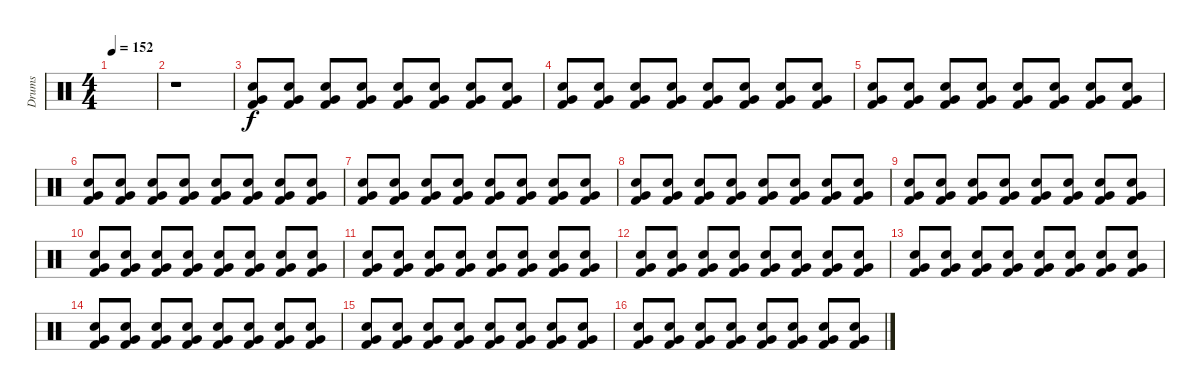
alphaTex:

\track ("Drums" "Drums") {instrument percussion}
\staff {score}
\articulation defaults
\ts (4 4)
\tempo 152
\clef neutral
\ks c
|
r.1{volume 7} |
("Very Low Tom (hit)" "Snare (hit) 2" "Kick (hit) 2").8{volume 10} ("Very Low Tom (hit)" "Snare (hit) 2" "Kick (hit) 2").8 ("Very Low Tom (hit)" "Snare (hit) 2" "Kick (hit) 2").8 ("Very Low Tom (hit)" "Snare (hit) 2" "Kick (hit) 2").8 ("Very Low Tom (hit)" "Snare (hit) 2" "Kick (hit) 2").8 ("Very Low Tom (hit)" "Snare (hit) 2" "Kick (hit) 2").8 ("Very Low Tom (hit)" "Snare (hit) 2" "Kick (hit) 2").8 ("Very Low Tom (hit)" "Snare (hit) 2" "Kick (hit) 2").8 |
("Very Low Tom (hit)" "Snare (hit) 2" "Kick (hit) 2").8 ("Very Low Tom (hit)" "Snare (hit) 2" "Kick (hit) 2").8 ("Very Low Tom (hit)" "Snare (hit) 2" "Kick (hit) 2").8 ("Very Low Tom (hit)" "Snare (hit) 2" "Kick (hit) 2").8 ("Very Low Tom (hit)" "Snare (hit) 2" "Kick (hit) 2").8 ("Very Low Tom (hit)" "Snare (hit) 2" "Kick (hit) 2").8 ("Very Low Tom (hit)" "Snare (hit) 2" "Kick (hit) 2").8 ("Very Low Tom (hit)" "Snare (hit) 2" "Kick (hit) 2").8 |
("Very Low Tom (hit)" "Snare (hit) 2" "Kick (hit) 2").8 ("Very Low Tom (hit)" "Snare (hit) 2" "Kick (hit) 2").8 ("Very Low Tom (hit)" "Snare (hit) 2" "Kick (hit) 2").8 ("Very Low Tom (hit)" "Snare (hit) 2" "Kick (hit) 2").8 ("Very Low Tom (hit)" "Snare (hit) 2" "Kick (hit) 2").8 ("Very Low Tom (hit)" "Snare (hit) 2" "Kick (hit) 2").8 ("Very Low Tom (hit)" "Snare (hit) 2" "Kick (hit) 2").8 ("Very Low Tom (hit)" "Snare (hit) 2" "Kick (hit) 2").8 |
("Very Low Tom (hit)" "Snare (hit) 2" "Kick (hit) 2").8 ("Very Low Tom (hit)" "Snare (hit) 2" "Kick (hit) 2").8 ("Very Low Tom (hit)" "Snare (hit) 2" "Kick (hit) 2").8 ("Very Low Tom (hit)" "Snare (hit) 2" "Kick (hit) 2").8 ("Very Low Tom (hit)" "Snare (hit) 2" "Kick (hit) 2").8 ("Very Low Tom (hit)" "Snare (hit) 2" "Kick (hit) 2").8 ("Very Low Tom (hit)" "Snare (hit) 2" "Kick (hit) 2").8 ("Very Low Tom (hit)" "Snare (hit) 2" "Kick (hit) 2").8 |
("Very Low Tom (hit)" "Snare (hit) 2" "Kick (hit) 2").8{volume 12} ("Very Low Tom (hit)" "Snare (hit) 2" "Kick (hit) 2").8 ("Very Low Tom (hit)" "Snare (hit) 2" "Kick (hit) 2").8 ("Very Low Tom (hit)" "Snare (hit) 2" "Kick (hit) 2").8 ("Very Low Tom (hit)" "Snare (hit) 2" "Kick (hit) 2").8 ("Very Low Tom (hit)" "Snare (hit) 2" "Kick (hit) 2").8 ("Very Low Tom (hit)" "Snare (hit) 2" "Kick (hit) 2").8 ("Very Low Tom (hit)" "Snare (hit) 2" "Kick (hit) 2").8 |
("Very Low Tom (hit)" "Snare (hit) 2" "Kick (hit) 2").8 ("Very Low Tom (hit)" "Snare (hit) 2" "Kick (hit) 2").8 ("Very Low Tom (hit)" "Snare (hit) 2" "Kick (hit) 2").8 ("Very Low Tom (hit)" "Snare (hit) 2" "Kick (hit) 2").8 ("Very Low Tom (hit)" "Snare (hit) 2" "Kick (hit) 2").8 ("Very Low Tom (hit)" "Snare (hit) 2" "Kick (hit) 2").8 ("Very Low Tom (hit)" "Snare (hit) 2" "Kick (hit) 2").8 ("Very Low Tom (hit)" "Snare (hit) 2" "Kick (hit) 2").8 |
("Very Low Tom (hit)" "Snare (hit) 2" "Kick (hit) 2").8 ("Very Low Tom (hit)" "Snare (hit) 2" "Kick (hit) 2").8 ("Very Low Tom (hit)" "Snare (hit) 2" "Kick (hit) 2").8 ("Very Low Tom (hit)" "Snare (hit) 2" "Kick (hit) 2").8 ("Very Low Tom (hit)" "Snare (hit) 2" "Kick (hit) 2").8 ("Very Low Tom (hit)" "Snare (hit) 2" "Kick (hit) 2").8 ("Very Low Tom (hit)" "Snare (hit) 2" "Kick (hit) 2").8 ("Very Low Tom (hit)" "Snare (hit) 2" "Kick (hit) 2").8 |
("Very Low Tom (hit)" "Snare (hit) 2" "Kick (hit) 2").8 ("Very Low Tom (hit)" "Snare (hit) 2" "Kick (hit) 2").8 ("Very Low Tom (hit)" "Snare (hit) 2" "Kick (hit) 2").8 ("Very Low Tom (hit)" "Snare (hit) 2" "Kick (hit) 2").8 ("Very Low Tom (hit)" "Snare (hit) 2" "Kick (hit) 2").8 ("Very Low Tom (hit)" "Snare (hit) 2" "Kick (hit) 2").8 ("Very Low Tom (hit)" "Snare (hit) 2" "Kick (hit) 2").8 ("Very Low Tom (hit)" "Snare (hit) 2" "Kick (hit) 2").8 |
("Very Low Tom (hit)" "Snare (hit) 2" "Kick (hit) 2").8{volume 14} ("Very Low Tom (hit)" "Snare (hit) 2" "Kick (hit) 2").8 ("Very Low Tom (hit)" "Snare (hit) 2" "Kick (hit) 2").8 ("Very Low Tom (hit)" "Snare (hit) 2" "Kick (hit) 2").8 ("Very Low Tom (hit)" "Snare (hit) 2" "Kick (hit) 2").8 ("Very Low Tom (hit)" "Snare (hit) 2" "Kick (hit) 2").8 ("Very Low Tom (hit)" "Snare (hit) 2" "Kick (hit) 2").8 ("Very Low Tom (hit)" "Snare (hit) 2" "Kick (hit) 2").8 |
("Very Low Tom (hit)" "Snare (hit) 2" "Kick (hit) 2").8 ("Very Low Tom (hit)" "Snare (hit) 2" "Kick (hit) 2").8 ("Very Low Tom (hit)" "Snare (hit) 2" "Kick (hit) 2").8 ("Very Low Tom (hit)" "Snare (hit) 2" "Kick (hit) 2").8 ("Very Low Tom (hit)" "Snare (hit) 2" "Kick (hit) 2").8 ("Very Low Tom (hit)" "Snare (hit) 2" "Kick (hit) 2").8 ("Very Low Tom (hit)" "Snare (hit) 2" "Kick (hit) 2").8 ("Very Low Tom (hit)" "Snare (hit) 2" "Kick (hit) 2").8 |
("Very Low Tom (hit)" "Snare (hit) 2" "Kick (hit) 2").8 ("Very Low Tom (hit)" "Snare (hit) 2" "Kick (hit) 2").8 ("Very Low Tom (hit)" "Snare (hit) 2" "Kick (hit) 2").8 ("Very Low Tom (hit)" "Snare (hit) 2" "Kick (hit) 2").8 ("Very Low Tom (hit)" "Snare (hit) 2" "Kick (hit) 2").8 ("Very Low Tom (hit)" "Snare (hit) 2" "Kick (hit) 2").8 ("Very Low Tom (hit)" "Snare (hit) 2" "Kick (hit) 2").8 ("Very Low Tom (hit)" "Snare (hit) 2" "Kick (hit) 2").8 |
("Very Low Tom (hit)" "Snare (hit) 2" "Kick (hit) 2").8 ("Very Low Tom (hit)" "Snare (hit) 2" "Kick (hit) 2").8 ("Very Low Tom (hit)" "Snare (hit) 2" "Kick (hit) 2").8 ("Very Low Tom (hit)" "Snare (hit) 2" "Kick (hit) 2").8 ("Very Low Tom (hit)" "Snare (hit) 2" "Kick (hit) 2").8 ("Very Low Tom (hit)" "Snare (hit) 2" "Kick (hit) 2").8 ("Very Low Tom (hit)" "Snare (hit) 2" "Kick (hit) 2").8 ("Very Low Tom (hit)" "Snare (hit) 2" "Kick (hit) 2").8 |
("Very Low Tom (hit)" "Snare (hit) 2" "Kick (hit) 2").8{volume 15} ("Very Low Tom (hit)" "Snare (hit) 2" "Kick (hit) 2").8 ("Very Low Tom (hit)" "Snare (hit) 2" "Kick (hit) 2").8 ("Very Low Tom (hit)" "Snare (hit) 2" "Kick (hit) 2").8 ("Very Low Tom (hit)" "Snare (hit) 2" "Kick (hit) 2").8 ("Very Low Tom (hit)" "Snare (hit) 2" "Kick (hit) 2").8 ("Very Low Tom (hit)" "Snare (hit) 2" "Kick (hit) 2").8 ("Very Low Tom (hit)" "Snare (hit) 2" "Kick (hit) 2").8 |
("Very Low Tom (hit)" "Snare (hit) 2" "Kick (hit) 2").8 ("Very Low Tom (hit)" "Snare (hit) 2" "Kick (hit) 2").8 ("Very Low Tom (hit)" "Snare (hit) 2" "Kick (hit) 2").8 ("Very Low Tom (hit)" "Snare (hit) 2" "Kick (hit) 2").8 ("Very Low Tom (hit)" "Snare (hit) 2" "Kick (hit) 2").8 ("Very Low Tom (hit)" "Snare (hit) 2" "Kick (hit) 2").8 ("Very Low Tom (hit)" "Snare (hit) 2" "Kick (hit) 2").8 ("Very Low Tom (hit)" "Snare (hit) 2" "Kick (hit) 2").8
